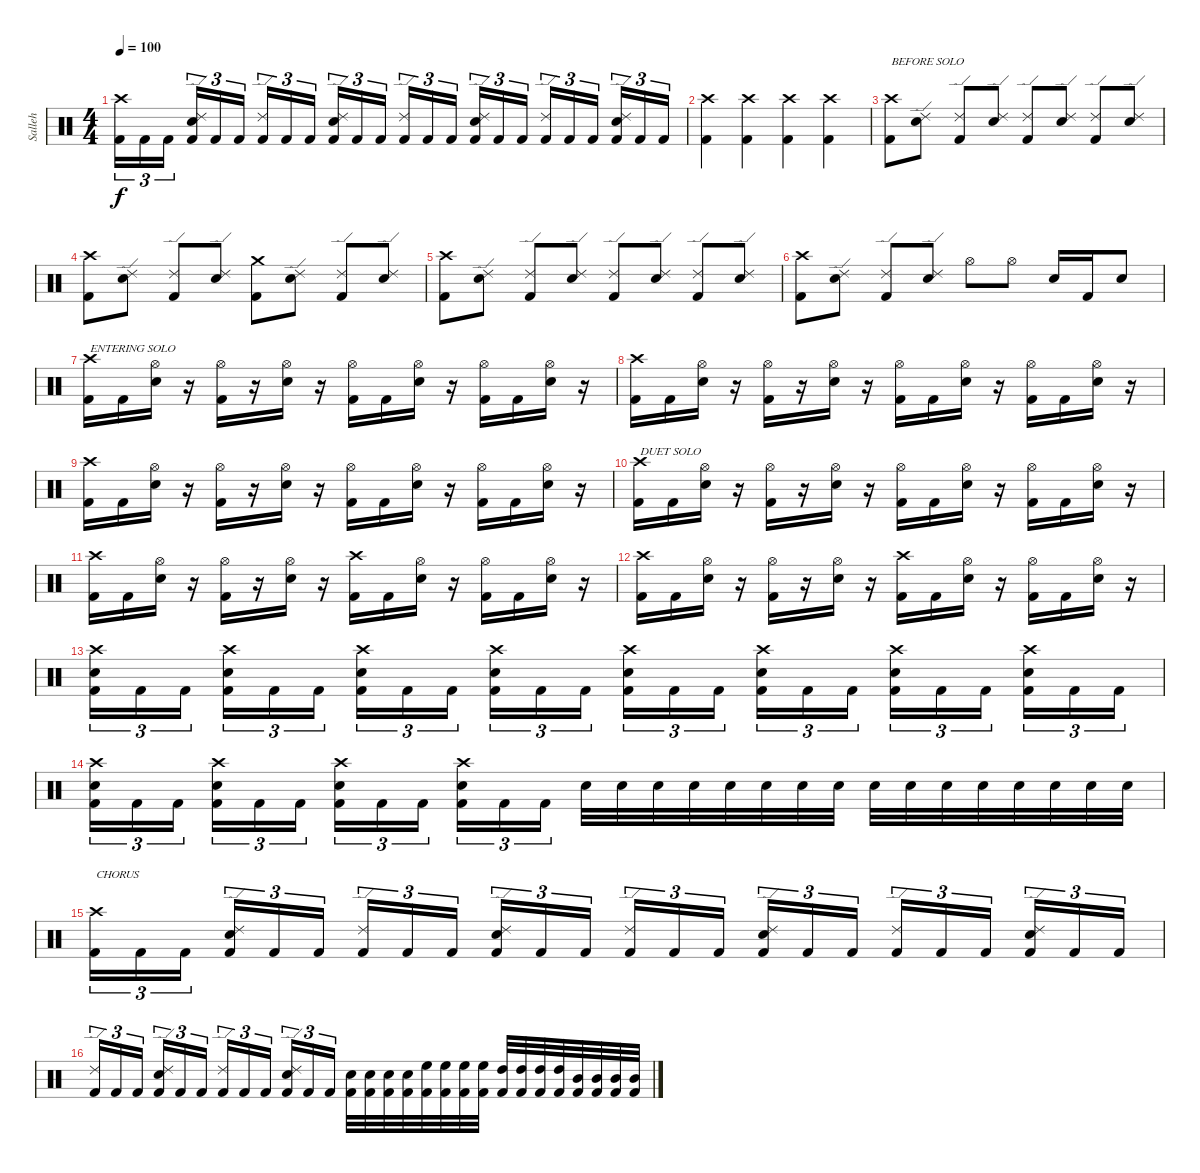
\track ("Salleh" "Salleh") {instrument percussion}
\staff {score}
\articulation defaults
\ts (4 4)
\tempo 100
\clef neutral
\ks c
("Crash high (hit)" "Kick (hit) 2").16{tu (3 2) dy f} "Kick (hit) 2".16{tu (3 2)} "Kick (hit) 2".16{tu (3 2) beam splitsecondary} ("Ride (edge) 2" "Electric Snare (hit)" "Kick (hit) 2").16{tu (3 2)} "Kick (hit) 2".16{tu (3 2)} "Kick (hit) 2".16{tu (3 2)} ("Ride (edge) 2" "Kick (hit) 2").16{tu (3 2)} "Kick (hit) 2".16{tu (3 2)} "Kick (hit) 2".16{tu (3 2) beam splitsecondary} ("Ride (edge) 2" "Electric Snare (hit)" "Kick (hit) 2").16{tu (3 2)} "Kick (hit) 2".16{tu (3 2)} "Kick (hit) 2".16{tu (3 2)} ("Ride (edge) 2" "Kick (hit) 2").16{tu (3 2)} "Kick (hit) 2".16{tu (3 2)} "Kick (hit) 2".16{tu (3 2) beam splitsecondary} ("Ride (edge) 2" "Electric Snare (hit)" "Kick (hit) 2").16{tu (3 2)} "Kick (hit) 2".16{tu (3 2)} "Kick (hit) 2".16{tu (3 2)} ("Ride (edge) 2" "Kick (hit) 2").16{tu (3 2)} "Kick (hit) 2".16{tu (3 2)} "Kick (hit) 2".16{tu (3 2) beam splitsecondary} ("Ride (edge) 2" "Electric Snare (hit)" "Kick (hit) 2").16{tu (3 2)} "Kick (hit) 2".16{tu (3 2)} "Kick (hit) 2".16{tu (3 2)} |
("Crash high (hit)" "Kick (hit) 2").4 ("Crash high (hit)" "Kick (hit) 2").4 ("Crash high (hit)" "Kick (hit) 2").4 ("Crash high (hit)" "Kick (hit) 2").4 |
("Crash high (hit)" "Kick (hit) 2").8{txt "BEFORE SOLO"} ("Ride (edge) 2" "Electric Snare (hit)").8 ("Ride (edge) 2" "Kick (hit) 2").8 ("Ride (edge) 2" "Electric Snare (hit)").8 ("Ride (edge) 2" "Kick (hit) 2").8 ("Ride (edge) 2" "Electric Snare (hit)").8 ("Ride (edge) 2" "Kick (hit) 2").8 ("Ride (edge) 2" "Electric Snare (hit)").8 |
("Crash high (hit)" "Kick (hit) 2").8 ("Ride (edge) 2" "Electric Snare (hit)").8 ("Ride (edge) 2" "Kick (hit) 2").8 ("Ride (edge) 2" "Electric Snare (hit)").8 ("Crash medium (hit)" "Kick (hit) 2").8 ("Ride (edge) 2" "Electric Snare (hit)").8 ("Ride (edge) 2" "Kick (hit) 2").8 ("Ride (edge) 2" "Electric Snare (hit)").8 |
("Crash high (hit)" "Kick (hit) 2").8 ("Ride (edge) 2" "Electric Snare (hit)").8 ("Ride (edge) 2" "Kick (hit) 2").8 ("Ride (edge) 2" "Electric Snare (hit)").8 ("Ride (edge) 2" "Kick (hit) 2").8 ("Ride (edge) 2" "Electric Snare (hit)").8 ("Ride (edge) 2" "Kick (hit) 2").8 ("Ride (edge) 2" "Electric Snare (hit)").8 |
("Crash high (hit)" "Kick (hit) 2").8 ("Ride (edge) 2" "Electric Snare (hit)").8 ("Ride (edge) 2" "Kick (hit) 2").8 ("Ride (edge) 2" "Electric Snare (hit)").8 "Hi-Hat (open)".8 "Hi-Hat (open)".8 "Electric Snare (hit)".16 "Kick (hit) 2".16 "Electric Snare (hit)".8 |
("Crash high (hit)" "Kick (hit) 2").16{txt "ENTERING SOLO"} "Kick (hit) 2".16 ("Hi-Hat (open)" "Electric Snare (hit)").16 r.16 ("Hi-Hat (open)" "Kick (hit) 2").16 r.16 ("Hi-Hat (open)" "Electric Snare (hit)").16 r.16 ("Hi-Hat (open)" "Kick (hit) 2").16 "Kick (hit) 2".16 ("Hi-Hat (open)" "Electric Snare (hit)").16 r.16 ("Hi-Hat (open)" "Kick (hit) 2").16 "Kick (hit) 2".16 ("Hi-Hat (open)" "Electric Snare (hit)").16 r.16 |
("Crash high (hit)" "Kick (hit) 2").16 "Kick (hit) 2".16 ("Hi-Hat (open)" "Electric Snare (hit)").16 r.16 ("Hi-Hat (open)" "Kick (hit) 2").16 r.16 ("Hi-Hat (open)" "Electric Snare (hit)").16 r.16 ("Hi-Hat (open)" "Kick (hit) 2").16 "Kick (hit) 2".16 ("Hi-Hat (open)" "Electric Snare (hit)").16 r.16 ("Hi-Hat (open)" "Kick (hit) 2").16 "Kick (hit) 2".16 ("Hi-Hat (open)" "Electric Snare (hit)").16 r.16 |
("Crash high (hit)" "Kick (hit) 2").16 "Kick (hit) 2".16 ("Hi-Hat (open)" "Electric Snare (hit)").16 r.16 ("Hi-Hat (open)" "Kick (hit) 2").16 r.16 ("Hi-Hat (open)" "Electric Snare (hit)").16 r.16 ("Hi-Hat (open)" "Kick (hit) 2").16 "Kick (hit) 2".16 ("Hi-Hat (open)" "Electric Snare (hit)").16 r.16 ("Hi-Hat (open)" "Kick (hit) 2").16 "Kick (hit) 2".16 ("Hi-Hat (open)" "Electric Snare (hit)").16 r.16 |
("Crash high (hit)" "Kick (hit) 2").16{txt "DUET SOLO"} "Kick (hit) 2".16 ("Hi-Hat (open)" "Electric Snare (hit)").16 r.16 ("Hi-Hat (open)" "Kick (hit) 2").16 r.16 ("Hi-Hat (open)" "Electric Snare (hit)").16 r.16 ("Hi-Hat (open)" "Kick (hit) 2").16 "Kick (hit) 2".16 ("Hi-Hat (open)" "Electric Snare (hit)").16 r.16 ("Hi-Hat (open)" "Kick (hit) 2").16 "Kick (hit) 2".16 ("Hi-Hat (open)" "Electric Snare (hit)").16 r.16 |
("Crash high (hit)" "Kick (hit) 2").16 "Kick (hit) 2".16 ("Hi-Hat (open)" "Electric Snare (hit)").16 r.16 ("Hi-Hat (open)" "Kick (hit) 2").16 r.16 ("Hi-Hat (open)" "Electric Snare (hit)").16 r.16 ("Crash high (hit)" "Kick (hit) 2").16 "Kick (hit) 2".16 ("Hi-Hat (open)" "Electric Snare (hit)").16 r.16 ("Hi-Hat (open)" "Kick (hit) 2").16 "Kick (hit) 2".16 ("Hi-Hat (open)" "Electric Snare (hit)").16 r.16 |
("Crash high (hit)" "Kick (hit) 2").16 "Kick (hit) 2".16 ("Hi-Hat (open)" "Electric Snare (hit)").16 r.16 ("Hi-Hat (open)" "Kick (hit) 2").16 r.16 ("Hi-Hat (open)" "Electric Snare (hit)").16 r.16 ("Crash high (hit)" "Kick (hit) 2").16 "Kick (hit) 2".16 ("Hi-Hat (open)" "Electric Snare (hit)").16 r.16 ("Hi-Hat (open)" "Kick (hit) 2").16 "Kick (hit) 2".16 ("Hi-Hat (open)" "Electric Snare (hit)").16 r.16 |
("Crash high (hit)" "Electric Snare (hit)" "Kick (hit) 2").16{tu (3 2)} "Kick (hit) 2".16{tu (3 2)} "Kick (hit) 2".16{tu (3 2) beam splitsecondary} ("Crash high (hit)" "Electric Snare (hit)" "Kick (hit) 2").16{tu (3 2)} "Kick (hit) 2".16{tu (3 2)} "Kick (hit) 2".16{tu (3 2)} ("Crash high (hit)" "Electric Snare (hit)" "Kick (hit) 2").16{tu (3 2)} "Kick (hit) 2".16{tu (3 2)} "Kick (hit) 2".16{tu (3 2) beam splitsecondary} ("Crash high (hit)" "Electric Snare (hit)" "Kick (hit) 2").16{tu (3 2)} "Kick (hit) 2".16{tu (3 2)} "Kick (hit) 2".16{tu (3 2)} ("Crash high (hit)" "Electric Snare (hit)" "Kick (hit) 2").16{tu (3 2)} "Kick (hit) 2".16{tu (3 2)} "Kick (hit) 2".16{tu (3 2) beam splitsecondary} ("Crash high (hit)" "Electric Snare (hit)" "Kick (hit) 2").16{tu (3 2)} "Kick (hit) 2".16{tu (3 2)} "Kick (hit) 2".16{tu (3 2)} ("Crash high (hit)" "Electric Snare (hit)" "Kick (hit) 2").16{tu (3 2)} "Kick (hit) 2".16{tu (3 2)} "Kick (hit) 2".16{tu (3 2) beam splitsecondary} ("Crash high (hit)" "Electric Snare (hit)" "Kick (hit) 2").16{tu (3 2)} "Kick (hit) 2".16{tu (3 2)} "Kick (hit) 2".16{tu (3 2)} |
("Crash high (hit)" "Electric Snare (hit)" "Kick (hit) 2").16{tu (3 2)} "Kick (hit) 2".16{tu (3 2)} "Kick (hit) 2".16{tu (3 2) beam splitsecondary} ("Crash high (hit)" "Electric Snare (hit)" "Kick (hit) 2").16{tu (3 2)} "Kick (hit) 2".16{tu (3 2)} "Kick (hit) 2".16{tu (3 2)} ("Crash high (hit)" "Electric Snare (hit)" "Kick (hit) 2").16{tu (3 2)} "Kick (hit) 2".16{tu (3 2)} "Kick (hit) 2".16{tu (3 2) beam splitsecondary} ("Crash high (hit)" "Electric Snare (hit)" "Kick (hit) 2").16{tu (3 2)} "Kick (hit) 2".16{tu (3 2)} "Kick (hit) 2".16{tu (3 2)} "Electric Snare (hit)".32 "Electric Snare (hit)".32 "Electric Snare (hit)".32 "Electric Snare (hit)".32 "Electric Snare (hit)".32 "Electric Snare (hit)".32 "Electric Snare (hit)".32 "Electric Snare (hit)".32 "Electric Snare (hit)".32 "Electric Snare (hit)".32 "Electric Snare (hit)".32 "Electric Snare (hit)".32 "Electric Snare (hit)".32 "Electric Snare (hit)".32 "Electric Snare (hit)".32 "Electric Snare (hit)".32 |
("Crash high (hit)" "Kick (hit) 2").16{tu (3 2) txt "CHORUS"} "Kick (hit) 2".16{tu (3 2)} "Kick (hit) 2".16{tu (3 2) beam splitsecondary} ("Ride (edge) 2" "Electric Snare (hit)" "Kick (hit) 2").16{tu (3 2)} "Kick (hit) 2".16{tu (3 2)} "Kick (hit) 2".16{tu (3 2)} ("Ride (edge) 2" "Kick (hit) 2").16{tu (3 2)} "Kick (hit) 2".16{tu (3 2)} "Kick (hit) 2".16{tu (3 2) beam splitsecondary} ("Ride (edge) 2" "Electric Snare (hit)" "Kick (hit) 2").16{tu (3 2)} "Kick (hit) 2".16{tu (3 2)} "Kick (hit) 2".16{tu (3 2)} ("Ride (edge) 2" "Kick (hit) 2").16{tu (3 2)} "Kick (hit) 2".16{tu (3 2)} "Kick (hit) 2".16{tu (3 2) beam splitsecondary} ("Ride (edge) 2" "Electric Snare (hit)" "Kick (hit) 2").16{tu (3 2)} "Kick (hit) 2".16{tu (3 2)} "Kick (hit) 2".16{tu (3 2)} ("Ride (edge) 2" "Kick (hit) 2").16{tu (3 2)} "Kick (hit) 2".16{tu (3 2)} "Kick (hit) 2".16{tu (3 2) beam splitsecondary} ("Ride (edge) 2" "Electric Snare (hit)" "Kick (hit) 2").16{tu (3 2)} "Kick (hit) 2".16{tu (3 2)} "Kick (hit) 2".16{tu (3 2)} |
("Ride (edge) 2" "Kick (hit) 2").16{tu (3 2)} "Kick (hit) 2".16{tu (3 2)} "Kick (hit) 2".16{tu (3 2) beam splitsecondary} ("Ride (edge) 2" "Electric Snare (hit)" "Kick (hit) 2").16{tu (3 2)} "Kick (hit) 2".16{tu (3 2)} "Kick (hit) 2".16{tu (3 2)} ("Ride (edge) 2" "Kick (hit) 2").16{tu (3 2)} "Kick (hit) 2".16{tu (3 2)} "Kick (hit) 2".16{tu (3 2) beam splitsecondary} ("Ride (edge) 2" "Electric Snare (hit)" "Kick (hit) 2").16{tu (3 2)} "Kick (hit) 2".16{tu (3 2)} "Kick (hit) 2".16{tu (3 2)} ("Electric Snare (hit)" "Kick (hit) 2").32 ("Electric Snare (hit)" "Kick (hit) 2").32 ("Electric Snare (hit)" "Kick (hit) 2").32 ("Electric Snare (hit)" "Kick (hit) 2").32 ("High Floor Tom (hit)" "Kick (hit) 2").32 ("High Floor Tom (hit)" "Kick (hit) 2").32 ("High Floor Tom (hit)" "Kick (hit) 2").32 ("High Floor Tom (hit)" "Kick (hit) 2").32 ("High Tom (hit)" "Kick (hit) 2").32 ("High Tom (hit)" "Kick (hit) 2").32 ("High Tom (hit)" "Kick (hit) 2").32 ("High Tom (hit)" "Kick (hit) 2").32 ("Mid Tom (hit)" "Kick (hit) 2").32 ("Mid Tom (hit)" "Kick (hit) 2").32 ("Mid Tom (hit)" "Kick (hit) 2").32 ("Mid Tom (hit)" "Kick (hit) 2").32
